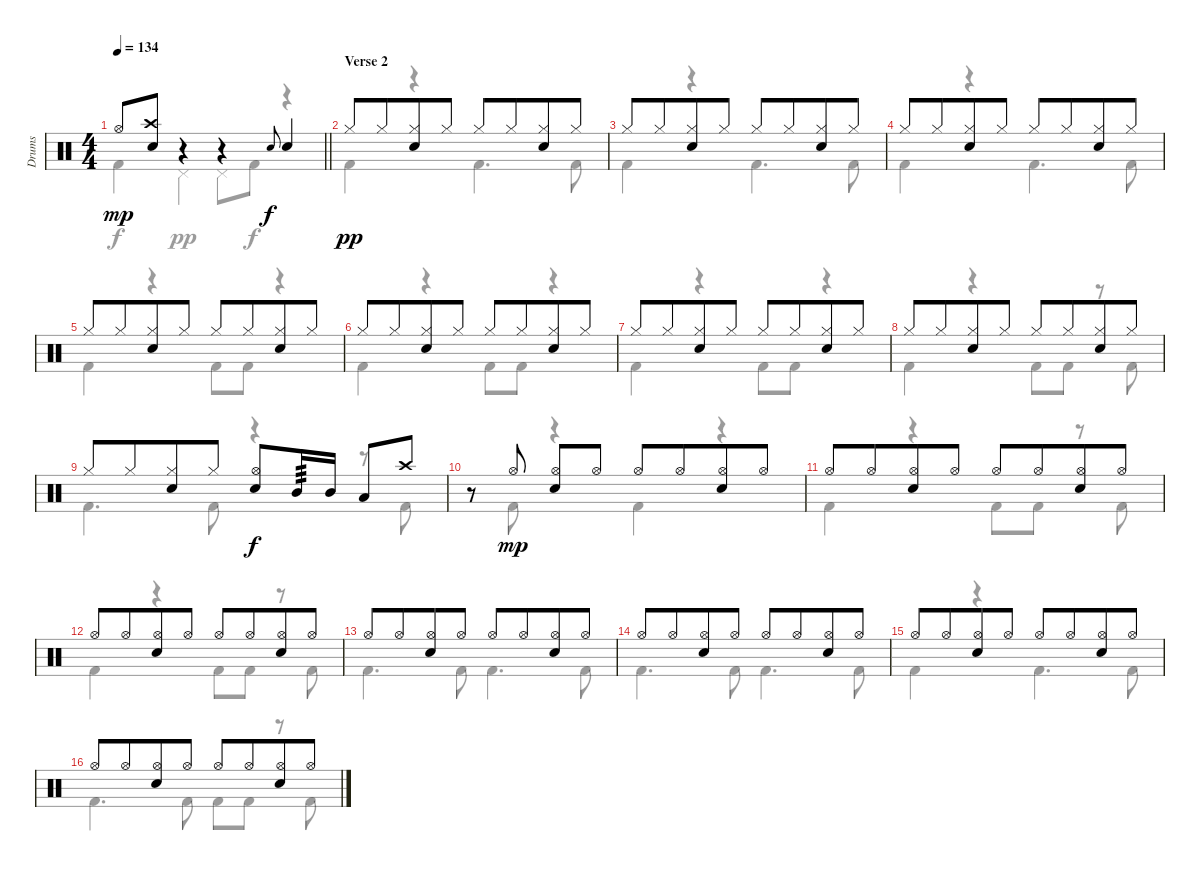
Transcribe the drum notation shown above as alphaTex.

\track ("Drums" "Drums") {instrument percussion}
\staff {score}
\articulation defaults
\voice
\ts (4 4)
\tempo 134
\clef neutral
\barLineRight lightlight
\ks c "Hi-Hat (open)".8{dy mp}
("Crash high (hit)" "Electric Snare (hit)").8 r.4 r.4 "Electric Snare (hit)".8{gr onbeat dy f} "Electric Snare (hit)".4 |
\section ("" "Verse 2")
"Hi-Hat (closed)".8{dy pp} "Hi-Hat (closed)".8{beam merge} ("Hi-Hat (closed)" "Electric Snare (hit)").8 "Hi-Hat (closed)".8 "Hi-Hat (closed)".8 "Hi-Hat (closed)".8{beam merge} ("Hi-Hat (closed)" "Electric Snare (hit)").8 "Hi-Hat (closed)".8 |
"Hi-Hat (closed)".8 "Hi-Hat (closed)".8{beam merge} ("Hi-Hat (closed)" "Electric Snare (hit)").8 "Hi-Hat (closed)".8 "Hi-Hat (closed)".8 "Hi-Hat (closed)".8{beam merge} ("Hi-Hat (closed)" "Electric Snare (hit)").8 "Hi-Hat (closed)".8 |
"Hi-Hat (closed)".8 "Hi-Hat (closed)".8{beam merge} ("Hi-Hat (closed)" "Electric Snare (hit)").8 "Hi-Hat (closed)".8 "Hi-Hat (closed)".8 "Hi-Hat (closed)".8{beam merge} ("Hi-Hat (closed)" "Electric Snare (hit)").8 "Hi-Hat (closed)".8 |
"Hi-Hat (closed)".8 "Hi-Hat (closed)".8{beam merge} ("Hi-Hat (closed)" "Electric Snare (hit)").8 "Hi-Hat (closed)".8 "Hi-Hat (closed)".8 "Hi-Hat (closed)".8{beam merge} ("Hi-Hat (closed)" "Electric Snare (hit)").8 "Hi-Hat (closed)".8 |
"Hi-Hat (closed)".8 "Hi-Hat (closed)".8{beam merge} ("Hi-Hat (closed)" "Electric Snare (hit)").8 "Hi-Hat (closed)".8 "Hi-Hat (closed)".8 "Hi-Hat (closed)".8{beam merge} ("Hi-Hat (closed)" "Electric Snare (hit)").8 "Hi-Hat (closed)".8 |
"Hi-Hat (closed)".8 "Hi-Hat (closed)".8{beam merge} ("Hi-Hat (closed)" "Electric Snare (hit)").8 "Hi-Hat (closed)".8 "Hi-Hat (closed)".8 "Hi-Hat (closed)".8{beam merge} ("Hi-Hat (closed)" "Electric Snare (hit)").8 "Hi-Hat (closed)".8 |
"Hi-Hat (closed)".8 "Hi-Hat (closed)".8{beam merge} ("Hi-Hat (closed)" "Electric Snare (hit)").8 "Hi-Hat (closed)".8 "Hi-Hat (closed)".8 "Hi-Hat (closed)".8{beam merge} ("Hi-Hat (closed)" "Electric Snare (hit)").8 "Hi-Hat (closed)".8 |
"Hi-Hat (closed)".8 "Hi-Hat (closed)".8{beam merge} ("Hi-Hat (closed)" "Electric Snare (hit)").8 "Hi-Hat (closed)".8 ("Electric Snare (hit)" "Hi-Hat (open)").8{dy f} "Mid Tom (hit)".16{tp 3} "Mid Tom (hit)".16 "Low Tom (hit)".8 "Crash high (hit)".8 |
r.8 "Hi-Hat (open)".8{dy mp} ("Hi-Hat (open)" "Electric Snare (hit)").8 "Hi-Hat (open)".8 "Hi-Hat (open)".8 "Hi-Hat (open)".8{beam merge} ("Hi-Hat (open)" "Electric Snare (hit)").8 "Hi-Hat (open)".8 |
"Hi-Hat (open)".8 "Hi-Hat (open)".8{beam merge} ("Hi-Hat (open)" "Electric Snare (hit)").8 "Hi-Hat (open)".8 "Hi-Hat (open)".8 "Hi-Hat (open)".8{beam merge} ("Hi-Hat (open)" "Electric Snare (hit)").8 "Hi-Hat (open)".8 |
"Hi-Hat (open)".8 "Hi-Hat (open)".8{beam merge} ("Hi-Hat (open)" "Electric Snare (hit)").8 "Hi-Hat (open)".8 "Hi-Hat (open)".8 "Hi-Hat (open)".8{beam merge} ("Hi-Hat (open)" "Electric Snare (hit)").8 "Hi-Hat (open)".8 |
"Hi-Hat (open)".8 "Hi-Hat (open)".8{beam merge} ("Hi-Hat (open)" "Electric Snare (hit)").8 "Hi-Hat (open)".8 "Hi-Hat (open)".8 "Hi-Hat (open)".8{beam merge} ("Hi-Hat (open)" "Electric Snare (hit)").8 "Hi-Hat (open)".8 |
"Hi-Hat (open)".8 "Hi-Hat (open)".8{beam merge} ("Hi-Hat (open)" "Electric Snare (hit)").8 "Hi-Hat (open)".8 "Hi-Hat (open)".8 "Hi-Hat (open)".8{beam merge} ("Hi-Hat (open)" "Electric Snare (hit)").8 "Hi-Hat (open)".8 |
"Hi-Hat (open)".8 "Hi-Hat (open)".8{beam merge} ("Hi-Hat (open)" "Electric Snare (hit)").8 "Hi-Hat (open)".8 "Hi-Hat (open)".8 "Hi-Hat (open)".8{beam merge} ("Hi-Hat (open)" "Electric Snare (hit)").8 "Hi-Hat (open)".8 |
"Hi-Hat (open)".8 "Hi-Hat (open)".8{beam merge} ("Hi-Hat (open)" "Electric Snare (hit)").8 "Hi-Hat (open)".8 "Hi-Hat (open)".8 "Hi-Hat (open)".8{beam merge} ("Hi-Hat (open)" "Electric Snare (hit)").8 "Hi-Hat (open)".8
\voice
\clef neutral
\ottava regular
\simile none
\barLineRight lightlight
\ks c "Kick (hit) 2".4{dy f} "Pedal Hi-Hat (hit)".4{dy pp} "Pedal Hi-Hat (hit)".8 "Kick (hit) 2".8{dy f}
r.4 |
"Kick (hit) 2".4 r.4 "Kick (hit) 2".4{d} "Kick (hit) 2".8 |
"Kick (hit) 2".4 r.4 "Kick (hit) 2".4{d} "Kick (hit) 2".8 |
"Kick (hit) 2".4 r.4 "Kick (hit) 2".4{d} "Kick (hit) 2".8 |
"Kick (hit) 2".4 r.4 "Kick (hit) 2".8 "Kick (hit) 2".8 r.4 |
"Kick (hit) 2".4 r.4 "Kick (hit) 2".8 "Kick (hit) 2".8 r.4 |
"Kick (hit) 2".4 r.4 "Kick (hit) 2".8 "Kick (hit) 2".8 r.4 |
"Kick (hit) 2".4 r.4 "Kick (hit) 2".8 "Kick (hit) 2".8 r.8 "Kick (hit) 2".8 |
"Kick (hit) 2".4{d} "Kick (hit) 2".8 r.4 r.8 "Kick (hit) 2".8 |
r.8 "Kick (hit) 2".8 r.4 "Kick (hit) 2".4 r.4 |
"Kick (hit) 2".4 r.4 "Kick (hit) 2".8 "Kick (hit) 2".8 r.8 "Kick (hit) 2".8 |
"Kick (hit) 2".4 r.4 "Kick (hit) 2".8 "Kick (hit) 2".8 r.8 "Kick (hit) 2".8 |
"Kick (hit) 2".4{d} "Kick (hit) 2".8 "Kick (hit) 2".4{d} "Kick (hit) 2".8 |
"Kick (hit) 2".4{d} "Kick (hit) 2".8 "Kick (hit) 2".4{d} "Kick (hit) 2".8 |
"Kick (hit) 2".4 r.4 "Kick (hit) 2".4{d} "Kick (hit) 2".8 |
"Kick (hit) 2".4{d} "Kick (hit) 2".8 "Kick (hit) 2".8 "Kick (hit) 2".8 r.8 "Kick (hit) 2".8
